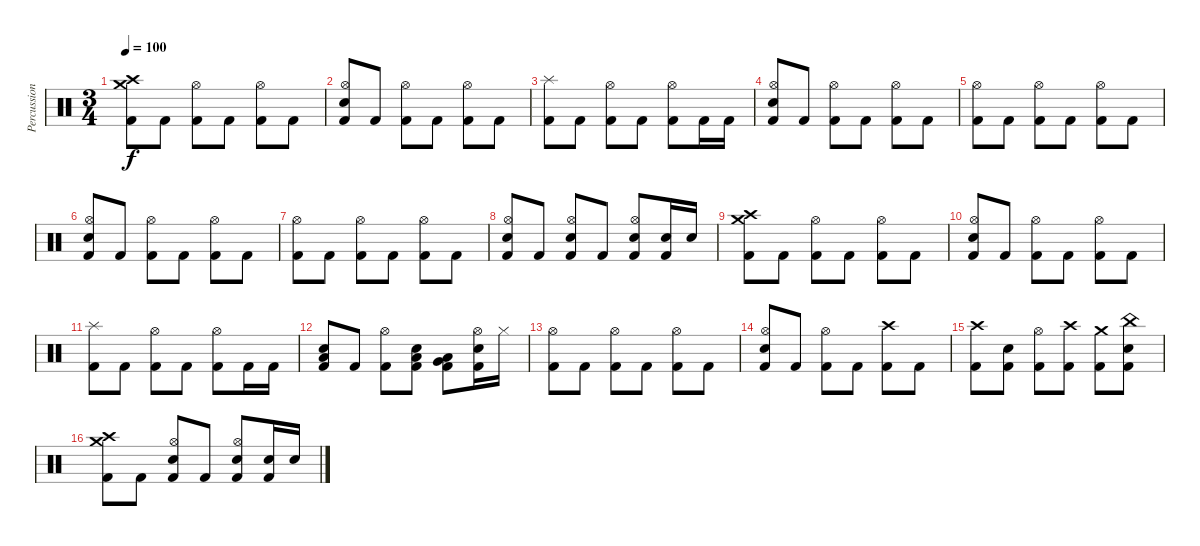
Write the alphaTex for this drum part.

\track ("Percussion" "Percussion") {instrument percussion}
\staff {score}
\articulation defaults
\ts (3 4)
\tempo 100
\clef neutral
\ks c
("Crash high (hit)" "Crash medium (hit)" "Kick (hit) 2").8{dy f} "Kick (hit) 2".8 ("Hi-Hat (open)" "Kick (hit) 2").8 "Kick (hit) 2".8 ("Hi-Hat (open)" "Kick (hit) 2").8 "Kick (hit) 2".8 |
("Hi-Hat (open)" "Electric Snare (hit)" "Kick (hit) 2").8 "Kick (hit) 2".8 ("Hi-Hat (open)" "Kick (hit) 2").8 "Kick (hit) 2".8 ("Hi-Hat (open)" "Kick (hit) 2").8 "Kick (hit) 2".8 |
("Splash (hit)" "Kick (hit) 2").8 "Kick (hit) 2".8 ("Hi-Hat (open)" "Kick (hit) 2").8 "Kick (hit) 2".8 ("Hi-Hat (open)" "Kick (hit) 2").8 "Kick (hit) 2".16 "Kick (hit) 2".16 |
("Hi-Hat (open)" "Electric Snare (hit)" "Kick (hit) 2").8 "Kick (hit) 2".8 ("Hi-Hat (open)" "Kick (hit) 2").8 "Kick (hit) 2".8 ("Hi-Hat (open)" "Kick (hit) 2").8 "Kick (hit) 2".8 |
("Hi-Hat (open)" "Kick (hit) 2").8 "Kick (hit) 2".8 ("Hi-Hat (open)" "Kick (hit) 2").8 "Kick (hit) 2".8 ("Hi-Hat (open)" "Kick (hit) 2").8 "Kick (hit) 2".8 |
("Hi-Hat (open)" "Electric Snare (hit)" "Kick (hit) 2").8 "Kick (hit) 2".8 ("Hi-Hat (open)" "Kick (hit) 2").8 "Kick (hit) 2".8 ("Hi-Hat (open)" "Kick (hit) 2").8 "Kick (hit) 2".8 |
("Hi-Hat (open)" "Kick (hit) 2").8 "Kick (hit) 2".8 ("Hi-Hat (open)" "Kick (hit) 2").8 "Kick (hit) 2".8 ("Hi-Hat (open)" "Kick (hit) 2").8 "Kick (hit) 2".8 |
("Hi-Hat (open)" "Electric Snare (hit)" "Kick (hit) 2").8 "Kick (hit) 2".8 ("Hi-Hat (open)" "Electric Snare (hit)" "Kick (hit) 2").8 "Kick (hit) 2".8 ("Hi-Hat (open)" "Electric Snare (hit)" "Kick (hit) 2").8 ("Electric Snare (hit)" "Kick (hit) 2").16 "Electric Snare (hit)".16 |
("Crash high (hit)" "Crash medium (hit)" "Kick (hit) 2").8 "Kick (hit) 2".8 ("Hi-Hat (open)" "Kick (hit) 2").8 "Kick (hit) 2".8 ("Hi-Hat (open)" "Kick (hit) 2").8 "Kick (hit) 2".8 |
("Hi-Hat (open)" "Electric Snare (hit)" "Kick (hit) 2").8 "Kick (hit) 2".8 ("Hi-Hat (open)" "Kick (hit) 2").8 "Kick (hit) 2".8 ("Hi-Hat (open)" "Kick (hit) 2").8 "Kick (hit) 2".8 |
("Splash (hit)" "Kick (hit) 2").8 "Kick (hit) 2".8 ("Hi-Hat (open)" "Kick (hit) 2").8 "Kick (hit) 2".8 ("Hi-Hat (open)" "Kick (hit) 2").8 "Kick (hit) 2".16 "Kick (hit) 2".16 |
("Low Tom (hit)" "Electric Snare (hit)" "Kick (hit) 2").8 "Kick (hit) 2".8 ("Hi-Hat (open)" "Kick (hit) 2").8 ("Low Tom (hit)" "Electric Snare (hit)" "Kick (hit) 2").8 ("Low Tom (hit)" "Very Low Tom (hit)" "Kick (hit) 2").8 ("Hi-Hat (open)" "Electric Snare (hit)" "Kick (hit) 2").16 "Hi-Hat (closed)".16 |
("Hi-Hat (open)" "Kick (hit) 2").8 "Kick (hit) 2".8 ("Hi-Hat (open)" "Kick (hit) 2").8 "Kick (hit) 2".8 ("Hi-Hat (open)" "Kick (hit) 2").8 "Kick (hit) 2".8 |
("Hi-Hat (open)" "Electric Snare (hit)" "Kick (hit) 2").8 "Kick (hit) 2".8 ("Hi-Hat (open)" "Kick (hit) 2").8 "Kick (hit) 2".8 ("Crash high (hit)" "Kick (hit) 2").8 "Kick (hit) 2".8 |
("Crash high (hit)" "Kick (hit) 2").8 ("Electric Snare (hit)" "Kick (hit) 2").8 ("Hi-Hat (open)" "Kick (hit) 2").8 ("Crash high (hit)" "Kick (hit) 2").8 ("Crash medium (hit)" "Kick (hit) 2").8 ("China (hit)" "Electric Snare (hit)" "Kick (hit) 2").8 |
("Crash medium (hit)" "Crash high (hit)" "Kick (hit) 2").8 "Kick (hit) 2".8 ("Hi-Hat (open)" "Electric Snare (hit)" "Kick (hit) 2").8 "Kick (hit) 2".8 ("Hi-Hat (open)" "Electric Snare (hit)" "Kick (hit) 2").8 ("Electric Snare (hit)" "Kick (hit) 2").16 "Electric Snare (hit)".16
